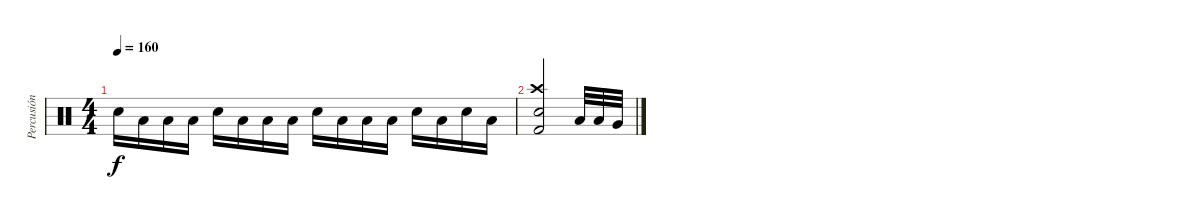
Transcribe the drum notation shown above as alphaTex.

\track ("Percusión" "Percusión") {instrument percussion}
\staff {score}
\articulation defaults
\ts (4 4)
\tempo 160
\clef neutral
\ks c "Electric Snare (hit)".16{dy f} "Low Tom (hit)".16 "Low Tom (hit)".16 "Low Tom (hit)".16 "Electric Snare (hit)".16 "Low Tom (hit)".16 "Low Tom (hit)".16 "Low Tom (hit)".16 "Electric Snare (hit)".16 "Low Tom (hit)".16 "Low Tom (hit)".16 "Low Tom (hit)".16 "Electric Snare (hit)".16 "Low Tom (hit)".16 "Electric Snare (hit)".16 "Low Tom (hit)".16
|
("Crash high (hit)" "Electric Snare (hit)" "Kick (hit) 2").2 "Low Tom (hit)".32 "Low Tom (hit)".32 "Very Low Tom (hit)".32
